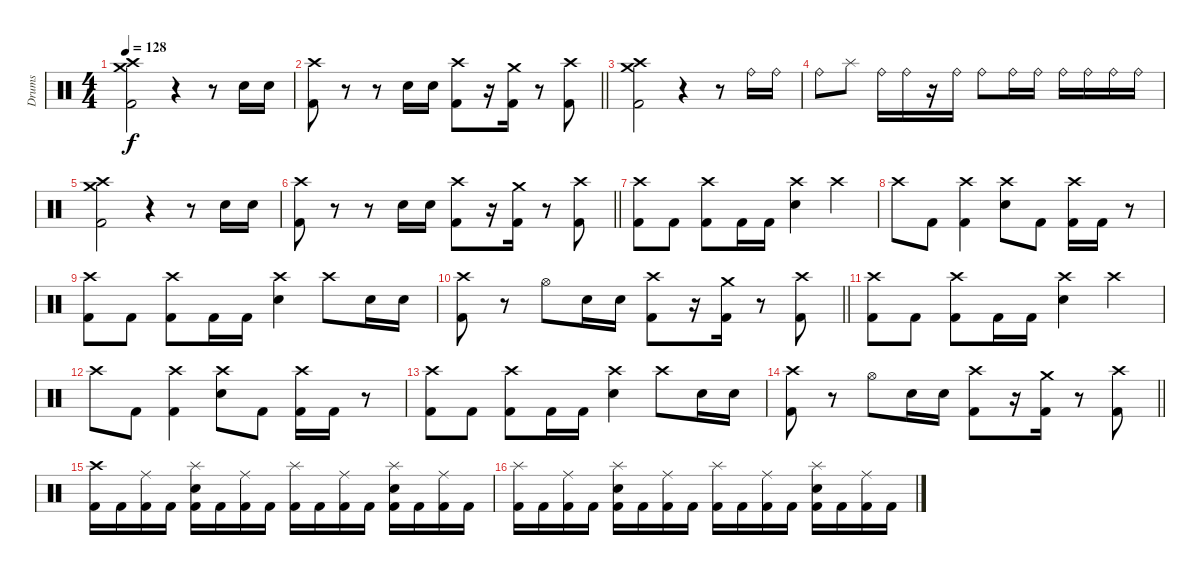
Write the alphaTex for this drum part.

\track ("Drums" "Drums") {instrument percussion}
\staff {score}
\articulation defaults
\ts (4 4)
\tempo 128
\clef neutral
\ks c
("Crash high (hit)" "Crash medium (hit)" "Kick (hit) 2").2{dy f} r.4 r.8 "Electric Snare (hit)".16 "Electric Snare (hit)".16 |
\barLineRight lightlight
("Crash high (hit)" "Kick (hit) 2").8 r.8 r.8 "Electric Snare (hit)".16 "Electric Snare (hit)".16 ("Crash high (hit)" "Kick (hit) 2").8 r.16 ("Crash medium (hit)" "Kick (hit) 2").16 r.8 ("Crash high (hit)" "Kick (hit) 2").8 |
("Crash high (hit)" "Crash medium (hit)" "Kick (hit) 2").2 r.4 r.8 "Ride (bell)".16 "Ride (bell)".16 |
"Ride (bell)".8 "Splash (hit)".8 "Ride (bell)".16 "Ride (bell)".16 r.16 "Ride (bell)".16 "Ride (bell)".8 "Ride (bell)".16 "Ride (bell)".16 "Ride (bell)".16 "Ride (bell)".16 "Ride (bell)".16 "Ride (bell)".16 |
("Crash high (hit)" "Crash medium (hit)" "Kick (hit) 2").2 r.4 r.8 "Electric Snare (hit)".16 "Electric Snare (hit)".16 |
\barLineRight lightlight
("Crash high (hit)" "Kick (hit) 2").8 r.8 r.8 "Electric Snare (hit)".16 "Electric Snare (hit)".16 ("Crash high (hit)" "Kick (hit) 2").8 r.16 ("Crash medium (hit)" "Kick (hit) 2").16 r.8 ("Crash high (hit)" "Kick (hit) 2").8 |
("Crash high (hit)" "Kick (hit) 2").8 "Kick (hit) 2".8 ("Crash high (hit)" "Kick (hit) 2").8 "Kick (hit) 2".16 "Kick (hit) 2".16 ("Crash high (hit)" "Electric Snare (hit)").4 "Crash high (hit)".4 |
"Crash high (hit)".8 "Kick (hit) 2".8 ("Crash high (hit)" "Kick (hit) 2").4 ("Crash high (hit)" "Electric Snare (hit)").8 "Kick (hit) 2".8 ("Crash high (hit)" "Kick (hit) 2").16 "Kick (hit) 2".16 r.8 |
("Crash high (hit)" "Kick (hit) 2").8 "Kick (hit) 2".8 ("Crash high (hit)" "Kick (hit) 2").8 "Kick (hit) 2".16 "Kick (hit) 2".16 ("Crash high (hit)" "Electric Snare (hit)").4 "Crash high (hit)".8 "Electric Snare (hit)".16 "Electric Snare (hit)".16 |
\barLineRight lightlight
("Crash high (hit)" "Kick (hit) 2").8 r.8 "Hi-Hat (open)".8 "Electric Snare (hit)".16 "Electric Snare (hit)".16 ("Crash high (hit)" "Kick (hit) 2").8 r.16 ("Crash medium (hit)" "Kick (hit) 2").16 r.8 ("Crash high (hit)" "Kick (hit) 2").8 |
("Crash high (hit)" "Kick (hit) 2").8 "Kick (hit) 2".8 ("Crash high (hit)" "Kick (hit) 2").8 "Kick (hit) 2".16 "Kick (hit) 2".16 ("Crash high (hit)" "Electric Snare (hit)").4 "Crash high (hit)".4 |
"Crash high (hit)".8 "Kick (hit) 2".8 ("Crash high (hit)" "Kick (hit) 2").4 ("Crash high (hit)" "Electric Snare (hit)").8 "Kick (hit) 2".8 ("Crash high (hit)" "Kick (hit) 2").16 "Kick (hit) 2".16 r.8 |
("Crash high (hit)" "Kick (hit) 2").8 "Kick (hit) 2".8 ("Crash high (hit)" "Kick (hit) 2").8 "Kick (hit) 2".16 "Kick (hit) 2".16 ("Crash high (hit)" "Electric Snare (hit)").4 "Crash high (hit)".8 "Electric Snare (hit)".16 "Electric Snare (hit)".16 |
\barLineRight lightlight
("Crash high (hit)" "Kick (hit) 2").8 r.8 "Hi-Hat (open)".8 "Electric Snare (hit)".16 "Electric Snare (hit)".16 ("Crash high (hit)" "Kick (hit) 2").8 r.16 ("Crash medium (hit)" "Kick (hit) 2").16 r.8 ("Crash high (hit)" "Kick (hit) 2").8 |
("Crash high (hit)" "Kick (hit) 2").16 "Kick (hit) 2".16 ("Ride (middle)" "Kick (hit) 2").16 "Kick (hit) 2".16 ("Splash (hit)" "Electric Snare (hit)" "Kick (hit) 2").16 "Kick (hit) 2".16 ("Ride (middle)" "Kick (hit) 2").16 "Kick (hit) 2".16 ("Splash (hit)" "Kick (hit) 2").16 "Kick (hit) 2".16 ("Ride (middle)" "Kick (hit) 2").16 "Kick (hit) 2".16 ("Splash (hit)" "Electric Snare (hit)" "Kick (hit) 2").16 "Kick (hit) 2".16 ("Ride (middle)" "Kick (hit) 2").16 "Kick (hit) 2".16 |
("Splash (hit)" "Kick (hit) 2").16 "Kick (hit) 2".16 ("Ride (middle)" "Kick (hit) 2").16 "Kick (hit) 2".16 ("Splash (hit)" "Electric Snare (hit)" "Kick (hit) 2").16 "Kick (hit) 2".16 ("Ride (middle)" "Kick (hit) 2").16 "Kick (hit) 2".16 ("Splash (hit)" "Kick (hit) 2").16 "Kick (hit) 2".16 ("Ride (middle)" "Kick (hit) 2").16 "Kick (hit) 2".16 ("Splash (hit)" "Electric Snare (hit)" "Kick (hit) 2").16 "Kick (hit) 2".16 ("Ride (middle)" "Kick (hit) 2").16 "Kick (hit) 2".16
